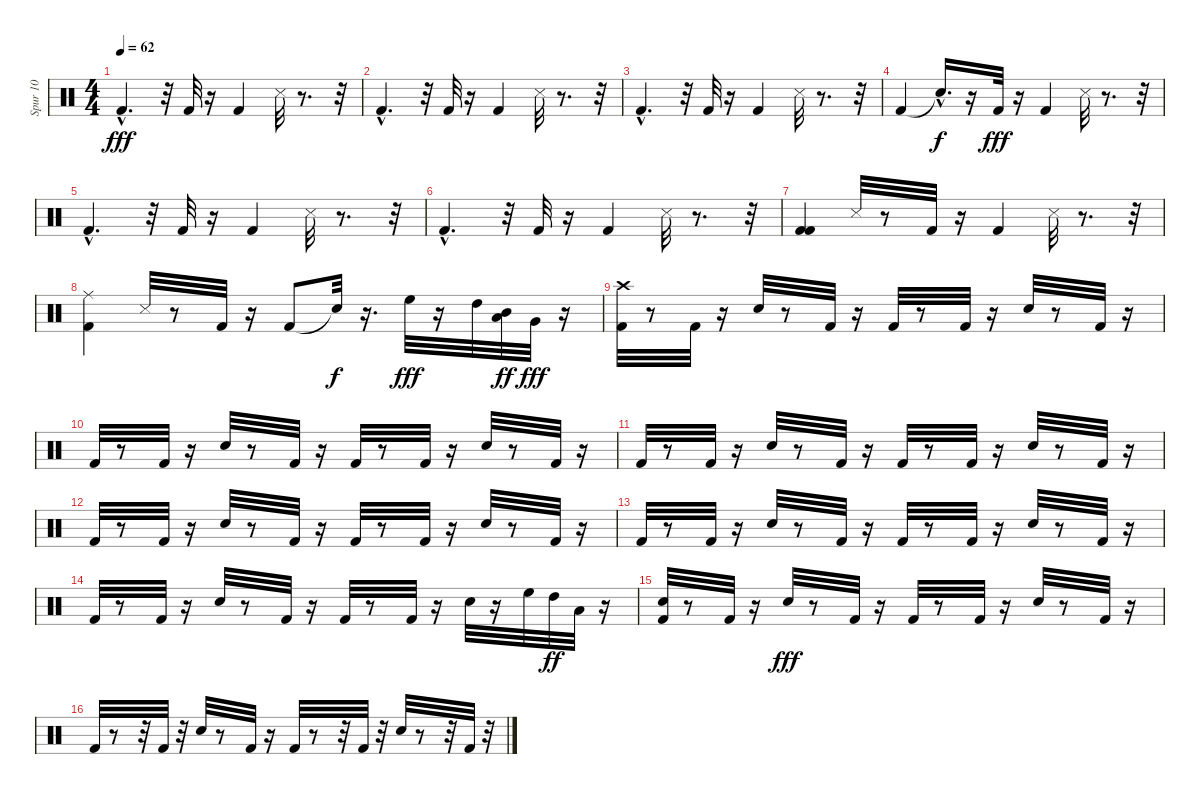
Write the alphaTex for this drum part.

\track ("Spur 10" "Spur 10") {instrument percussion}
\staff {score}
\articulation defaults
\ts (4 4)
\tempo 62
\clef neutral
\ks c "Kick (hit) 2"{hac}.4{d dy fff}
r.32 "Kick (hit) 2".32 r.16 "Kick (hit) 2".4 "Snare (side stick) 3".32 r.8{d} r.32 |
"Kick (hit) 2"{hac}.4{d} r.32 "Kick (hit) 2".32 r.16 "Kick (hit) 2".4 "Snare (side stick) 3".32 r.8{d} r.32 |
"Kick (hit) 2"{hac}.4{d} r.32 "Kick (hit) 2".32 r.16 "Kick (hit) 2".4 "Snare (side stick) 3".32 r.8{d} r.32 |
"Kick (hit) 2".4 "Snare (hit)"{hac t}.16{d dy f} r.16 "Kick (hit) 2".32{dy fff} r.16 "Kick (hit) 2".4 "Snare (side stick) 3".32 r.8{d} r.32 |
"Kick (hit) 2"{hac}.4{d} r.32 "Kick (hit) 2".32 r.16 "Kick (hit) 2".4 "Snare (side stick) 3".32 r.8{d} r.32 |
"Kick (hit) 2"{hac}.4{d} r.32 "Kick (hit) 2".32 r.16 "Kick (hit) 2".4 "Snare (side stick) 3".32 r.8{d} r.32 |
("Kick (hit) 2" "Kick (hit) 2").4 "Snare (side stick) 3".32 r.8 "Kick (hit) 2".32 r.16 "Kick (hit) 2".4 "Snare (side stick) 3".32 r.8{d} r.32 |
("Kick (hit) 2" "Ride (middle)").4 "Snare (side stick) 3".32 r.8 "Kick (hit) 2".32 r.16 "Kick (hit) 2".8 "Snare (hit)"{t}.32{dy f} r.16{d} "High Floor Tom (hit)".32{dy fff} r.16 "High Tom (hit)".32 ("Low Tom (hit)" "Mid Tom (hit)").32{dy ff} "Very Low Tom (hit)".32{dy fff} r.16 |
("Crash high (hit)" "Kick (hit) 2").32 r.8 "Kick (hit) 2".32 r.16 "Electric Snare (hit)".32 r.8 "Kick (hit) 2".32 r.16 "Kick (hit) 2".32 r.8 "Kick (hit) 2".32 r.16 "Electric Snare (hit)".32 r.8 "Kick (hit) 2".32 r.16 |
"Kick (hit) 2".32 r.8 "Kick (hit) 2".32 r.16 "Electric Snare (hit)".32 r.8 "Kick (hit) 2".32 r.16 "Kick (hit) 2".32 r.8 "Kick (hit) 2".32 r.16 "Electric Snare (hit)".32 r.8 "Kick (hit) 2".32 r.16 |
"Kick (hit) 2".32 r.8 "Kick (hit) 2".32 r.16 "Electric Snare (hit)".32 r.8 "Kick (hit) 2".32 r.16 "Kick (hit) 2".32 r.8 "Kick (hit) 2".32 r.16 "Electric Snare (hit)".32 r.8 "Kick (hit) 2".32 r.16 |
"Kick (hit) 2".32 r.8 "Kick (hit) 2".32 r.16 "Electric Snare (hit)".32 r.8 "Kick (hit) 2".32 r.16 "Kick (hit) 2".32 r.8 "Kick (hit) 2".32 r.16 "Electric Snare (hit)".32 r.8 "Kick (hit) 2".32 r.16 |
"Kick (hit) 2".32 r.8 "Kick (hit) 2".32 r.16 "Electric Snare (hit)".32 r.8 "Kick (hit) 2".32 r.16 "Kick (hit) 2".32 r.8 "Kick (hit) 2".32 r.16 "Electric Snare (hit)".32 r.8 "Kick (hit) 2".32 r.16 |
"Kick (hit) 2".32 r.8 "Kick (hit) 2".32 r.16 "Electric Snare (hit)".32 r.8 "Kick (hit) 2".32 r.16 "Kick (hit) 2".32 r.8 "Kick (hit) 2".32 r.16 "Electric Snare (hit)".32 r.16 "High Floor Tom (hit)".32 "High Tom (hit)".32{dy ff} "Low Tom (hit)".32 r.16 |
("Kick (hit) 2" "Snare (hit) 2").32 r.8 "Kick (hit) 2".32 r.16 "Electric Snare (hit)".32{dy fff} r.8 "Kick (hit) 2".32 r.16 "Kick (hit) 2".32 r.8 "Kick (hit) 2".32 r.16 "Electric Snare (hit)".32 r.8 "Kick (hit) 2".32 r.16 |
"Kick (hit) 2".32 r.8 r.32 "Kick (hit) 2".32 r.32 "Electric Snare (hit)".32 r.8 "Kick (hit) 2".32 r.16 "Kick (hit) 2".32 r.8 r.32 "Kick (hit) 2".32 r.32 "Electric Snare (hit)".32 r.8 r.32 "Kick (hit) 2".32 r.32
